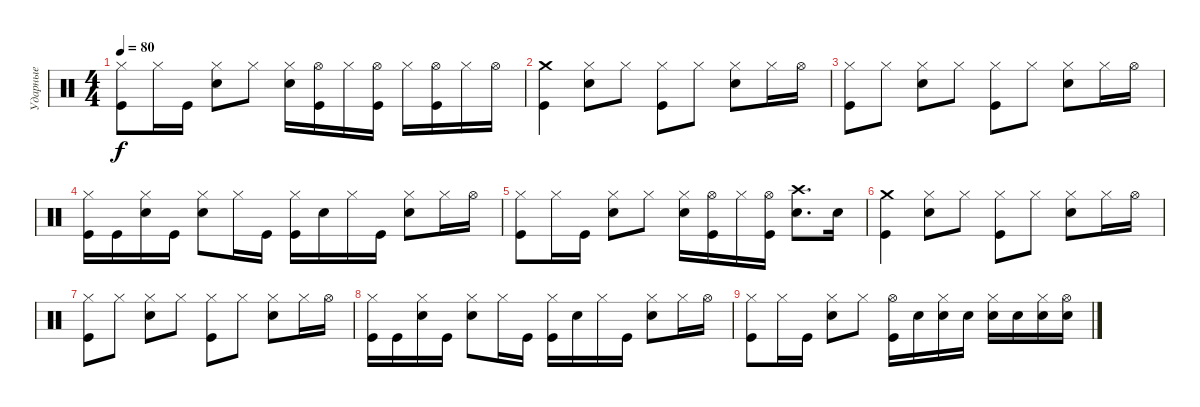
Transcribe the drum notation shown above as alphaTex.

\track ("Ударные" "Ударные") {instrument percussion}
\staff {score}
\articulation defaults
\ts (4 4)
\tempo 80
\clef neutral
\ks c
("Kick (hit)" "Hi-Hat (closed)").8{dy f} "Hi-Hat (closed)".16 "Kick (hit)".16 ("Snare (hit) 2" "Hi-Hat (closed)").8 "Hi-Hat (closed)".8 ("Snare (hit) 2" "Hi-Hat (closed)").16 ("Kick (hit)" "Hi-Hat (open)").16 "Hi-Hat (closed)".16 ("Kick (hit)" "Hi-Hat (open)").16 "Hi-Hat (closed)".16 ("Kick (hit)" "Hi-Hat (open)").16 "Hi-Hat (closed)".16 "Hi-Hat (open)".16 |
("Kick (hit)" "Crash medium (hit)").4 ("Snare (hit) 2" "Hi-Hat (closed)").8 "Hi-Hat (closed)".8 ("Kick (hit)" "Hi-Hat (closed)").8 "Hi-Hat (closed)".8 ("Snare (hit) 2" "Hi-Hat (closed)").8 "Hi-Hat (closed)".16 "Hi-Hat (open)".16 |
("Kick (hit)" "Hi-Hat (closed)").8 "Hi-Hat (closed)".8 ("Snare (hit) 2" "Hi-Hat (closed)").8 "Hi-Hat (closed)".8 ("Kick (hit)" "Hi-Hat (closed)").8 "Hi-Hat (closed)".8 ("Snare (hit) 2" "Hi-Hat (closed)").8 "Hi-Hat (closed)".16 "Hi-Hat (open)".16 |
("Kick (hit)" "Hi-Hat (closed)").16 "Kick (hit)".16 ("Snare (hit) 2" "Hi-Hat (closed)").16 "Kick (hit)".16 ("Snare (hit) 2" "Hi-Hat (closed)").8 "Hi-Hat (closed)".16 "Kick (hit)".16 ("Kick (hit)" "Hi-Hat (closed)").16 "Snare (hit) 2".16 "Hi-Hat (closed)".16 "Kick (hit)".16 ("Snare (hit) 2" "Hi-Hat (closed)").8 "Hi-Hat (closed)".16 "Hi-Hat (open)".16 |
("Kick (hit)" "Hi-Hat (closed)").8 "Hi-Hat (closed)".16 "Kick (hit)".16 ("Snare (hit) 2" "Hi-Hat (closed)").8 "Hi-Hat (closed)".8 ("Snare (hit) 2" "Hi-Hat (closed)").16 ("Kick (hit)" "Hi-Hat (open)").16 "Hi-Hat (closed)".16 ("Kick (hit)" "Hi-Hat (open)").16 ("Snare (hit) 2" "Crash high (hit)").8{d} "Snare (hit) 2".16 |
("Kick (hit)" "Crash medium (hit)").4 ("Snare (hit) 2" "Hi-Hat (closed)").8 "Hi-Hat (closed)".8 ("Kick (hit)" "Hi-Hat (closed)").8 "Hi-Hat (closed)".8 ("Snare (hit) 2" "Hi-Hat (closed)").8 "Hi-Hat (closed)".16 "Hi-Hat (open)".16 |
("Kick (hit)" "Hi-Hat (closed)").8 "Hi-Hat (closed)".8 ("Snare (hit) 2" "Hi-Hat (closed)").8 "Hi-Hat (closed)".8 ("Kick (hit)" "Hi-Hat (closed)").8 "Hi-Hat (closed)".8 ("Snare (hit) 2" "Hi-Hat (closed)").8 "Hi-Hat (closed)".16 "Hi-Hat (open)".16 |
("Kick (hit)" "Hi-Hat (closed)").16 "Kick (hit)".16 ("Snare (hit) 2" "Hi-Hat (closed)").16 "Kick (hit)".16 ("Snare (hit) 2" "Hi-Hat (closed)").8 "Hi-Hat (closed)".16 "Kick (hit)".16 ("Kick (hit)" "Hi-Hat (closed)").16 "Snare (hit) 2".16 "Hi-Hat (closed)".16 "Kick (hit)".16 ("Snare (hit) 2" "Hi-Hat (closed)").8 "Hi-Hat (closed)".16 "Hi-Hat (open)".16 |
("Kick (hit)" "Hi-Hat (closed)").8 "Hi-Hat (closed)".16 "Kick (hit)".16 ("Snare (hit) 2" "Hi-Hat (closed)").8 "Hi-Hat (closed)".8 ("Kick (hit)" "Hi-Hat (open)").16 "Snare (hit) 2".16 ("Snare (hit) 2" "Hi-Hat (closed)").16 "Snare (hit) 2".16 ("Snare (hit) 2" "Hi-Hat (closed)").16 "Snare (hit) 2".16 ("Snare (hit) 2" "Hi-Hat (closed)").16 ("Snare (hit) 2" "Hi-Hat (open)").16
